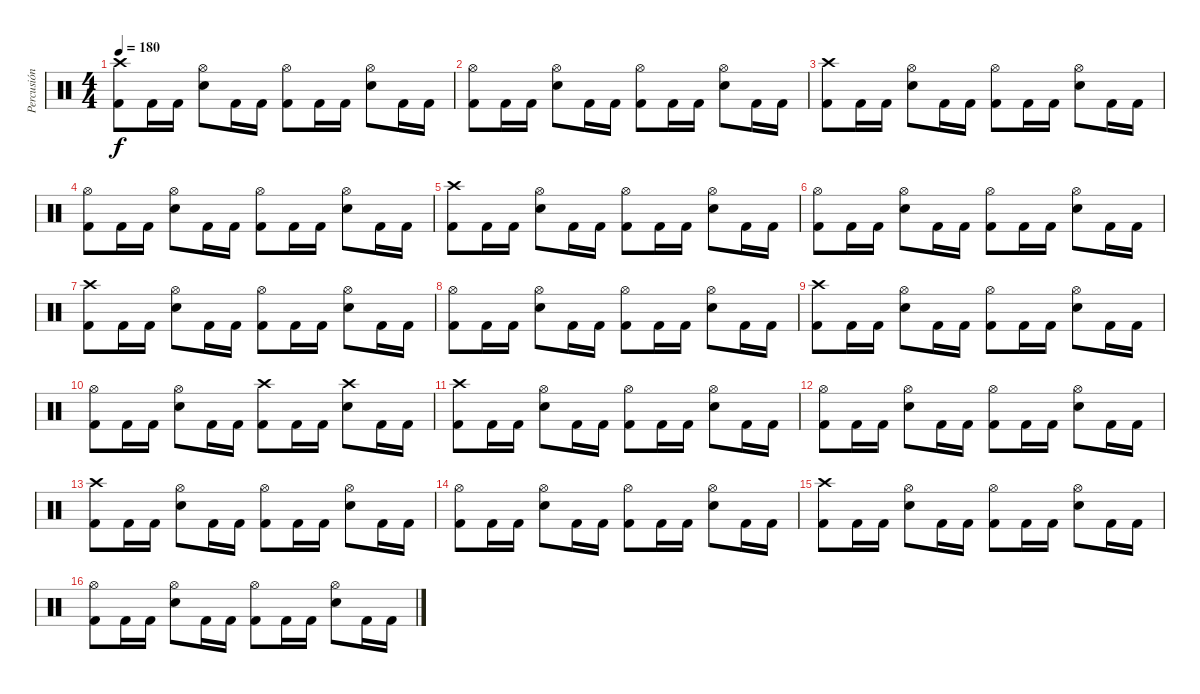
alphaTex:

\track ("Percusión" "Percusión") {instrument percussion}
\staff {score}
\articulation defaults
\ts (4 4)
\tempo 180
\clef neutral
\ks c
("Crash high (hit)" "Kick (hit) 2").8{dy f} "Kick (hit) 2".16 "Kick (hit) 2".16 ("Hi-Hat (open)" "Electric Snare (hit)").8 "Kick (hit) 2".16 "Kick (hit) 2".16 ("Hi-Hat (open)" "Kick (hit) 2").8 "Kick (hit) 2".16 "Kick (hit) 2".16 ("Hi-Hat (open)" "Electric Snare (hit)").8 "Kick (hit) 2".16 "Kick (hit) 2".16 |
("Hi-Hat (open)" "Kick (hit) 2").8 "Kick (hit) 2".16 "Kick (hit) 2".16 ("Hi-Hat (open)" "Electric Snare (hit)").8 "Kick (hit) 2".16 "Kick (hit) 2".16 ("Hi-Hat (open)" "Kick (hit) 2").8 "Kick (hit) 2".16 "Kick (hit) 2".16 ("Hi-Hat (open)" "Electric Snare (hit)").8 "Kick (hit) 2".16 "Kick (hit) 2".16 |
("Crash high (hit)" "Kick (hit) 2").8 "Kick (hit) 2".16 "Kick (hit) 2".16 ("Hi-Hat (open)" "Electric Snare (hit)").8 "Kick (hit) 2".16 "Kick (hit) 2".16 ("Hi-Hat (open)" "Kick (hit) 2").8 "Kick (hit) 2".16 "Kick (hit) 2".16 ("Hi-Hat (open)" "Electric Snare (hit)").8 "Kick (hit) 2".16 "Kick (hit) 2".16 |
("Hi-Hat (open)" "Kick (hit) 2").8 "Kick (hit) 2".16 "Kick (hit) 2".16 ("Hi-Hat (open)" "Electric Snare (hit)").8 "Kick (hit) 2".16 "Kick (hit) 2".16 ("Hi-Hat (open)" "Kick (hit) 2").8 "Kick (hit) 2".16 "Kick (hit) 2".16 ("Hi-Hat (open)" "Electric Snare (hit)").8 "Kick (hit) 2".16 "Kick (hit) 2".16 |
("Crash high (hit)" "Kick (hit) 2").8 "Kick (hit) 2".16 "Kick (hit) 2".16 ("Hi-Hat (open)" "Electric Snare (hit)").8 "Kick (hit) 2".16 "Kick (hit) 2".16 ("Hi-Hat (open)" "Kick (hit) 2").8 "Kick (hit) 2".16 "Kick (hit) 2".16 ("Hi-Hat (open)" "Electric Snare (hit)").8 "Kick (hit) 2".16 "Kick (hit) 2".16 |
("Hi-Hat (open)" "Kick (hit) 2").8 "Kick (hit) 2".16 "Kick (hit) 2".16 ("Hi-Hat (open)" "Electric Snare (hit)").8 "Kick (hit) 2".16 "Kick (hit) 2".16 ("Hi-Hat (open)" "Kick (hit) 2").8 "Kick (hit) 2".16 "Kick (hit) 2".16 ("Hi-Hat (open)" "Electric Snare (hit)").8 "Kick (hit) 2".16 "Kick (hit) 2".16 |
("Crash high (hit)" "Kick (hit) 2").8 "Kick (hit) 2".16 "Kick (hit) 2".16 ("Hi-Hat (open)" "Electric Snare (hit)").8 "Kick (hit) 2".16 "Kick (hit) 2".16 ("Hi-Hat (open)" "Kick (hit) 2").8 "Kick (hit) 2".16 "Kick (hit) 2".16 ("Hi-Hat (open)" "Electric Snare (hit)").8 "Kick (hit) 2".16 "Kick (hit) 2".16 |
("Hi-Hat (open)" "Kick (hit) 2").8 "Kick (hit) 2".16 "Kick (hit) 2".16 ("Hi-Hat (open)" "Electric Snare (hit)").8 "Kick (hit) 2".16 "Kick (hit) 2".16 ("Hi-Hat (open)" "Kick (hit) 2").8 "Kick (hit) 2".16 "Kick (hit) 2".16 ("Hi-Hat (open)" "Electric Snare (hit)").8 "Kick (hit) 2".16 "Kick (hit) 2".16 |
("Crash high (hit)" "Kick (hit) 2").8 "Kick (hit) 2".16 "Kick (hit) 2".16 ("Hi-Hat (open)" "Electric Snare (hit)").8 "Kick (hit) 2".16 "Kick (hit) 2".16 ("Hi-Hat (open)" "Kick (hit) 2").8 "Kick (hit) 2".16 "Kick (hit) 2".16 ("Hi-Hat (open)" "Electric Snare (hit)").8 "Kick (hit) 2".16 "Kick (hit) 2".16 |
("Hi-Hat (open)" "Kick (hit) 2").8 "Kick (hit) 2".16 "Kick (hit) 2".16 ("Hi-Hat (open)" "Electric Snare (hit)").8 "Kick (hit) 2".16 "Kick (hit) 2".16 ("Crash high (hit)" "Kick (hit) 2").8 "Kick (hit) 2".16 "Kick (hit) 2".16 ("Crash high (hit)" "Electric Snare (hit)").8 "Kick (hit) 2".16 "Kick (hit) 2".16 |
("Crash high (hit)" "Kick (hit) 2").8 "Kick (hit) 2".16 "Kick (hit) 2".16 ("Hi-Hat (open)" "Electric Snare (hit)").8 "Kick (hit) 2".16 "Kick (hit) 2".16 ("Hi-Hat (open)" "Kick (hit) 2").8 "Kick (hit) 2".16 "Kick (hit) 2".16 ("Hi-Hat (open)" "Electric Snare (hit)").8 "Kick (hit) 2".16 "Kick (hit) 2".16 |
("Hi-Hat (open)" "Kick (hit) 2").8 "Kick (hit) 2".16 "Kick (hit) 2".16 ("Hi-Hat (open)" "Electric Snare (hit)").8 "Kick (hit) 2".16 "Kick (hit) 2".16 ("Hi-Hat (open)" "Kick (hit) 2").8 "Kick (hit) 2".16 "Kick (hit) 2".16 ("Hi-Hat (open)" "Electric Snare (hit)").8 "Kick (hit) 2".16 "Kick (hit) 2".16 |
("Crash high (hit)" "Kick (hit) 2").8 "Kick (hit) 2".16 "Kick (hit) 2".16 ("Hi-Hat (open)" "Electric Snare (hit)").8 "Kick (hit) 2".16 "Kick (hit) 2".16 ("Hi-Hat (open)" "Kick (hit) 2").8 "Kick (hit) 2".16 "Kick (hit) 2".16 ("Hi-Hat (open)" "Electric Snare (hit)").8 "Kick (hit) 2".16 "Kick (hit) 2".16 |
("Hi-Hat (open)" "Kick (hit) 2").8 "Kick (hit) 2".16 "Kick (hit) 2".16 ("Hi-Hat (open)" "Electric Snare (hit)").8 "Kick (hit) 2".16 "Kick (hit) 2".16 ("Hi-Hat (open)" "Kick (hit) 2").8 "Kick (hit) 2".16 "Kick (hit) 2".16 ("Hi-Hat (open)" "Electric Snare (hit)").8 "Kick (hit) 2".16 "Kick (hit) 2".16 |
("Crash high (hit)" "Kick (hit) 2").8 "Kick (hit) 2".16 "Kick (hit) 2".16 ("Hi-Hat (open)" "Electric Snare (hit)").8 "Kick (hit) 2".16 "Kick (hit) 2".16 ("Hi-Hat (open)" "Kick (hit) 2").8 "Kick (hit) 2".16 "Kick (hit) 2".16 ("Hi-Hat (open)" "Electric Snare (hit)").8 "Kick (hit) 2".16 "Kick (hit) 2".16 |
("Hi-Hat (open)" "Kick (hit) 2").8 "Kick (hit) 2".16 "Kick (hit) 2".16 ("Hi-Hat (open)" "Electric Snare (hit)").8 "Kick (hit) 2".16 "Kick (hit) 2".16 ("Hi-Hat (open)" "Kick (hit) 2").8 "Kick (hit) 2".16 "Kick (hit) 2".16 ("Hi-Hat (open)" "Electric Snare (hit)").8 "Kick (hit) 2".16 "Kick (hit) 2".16
